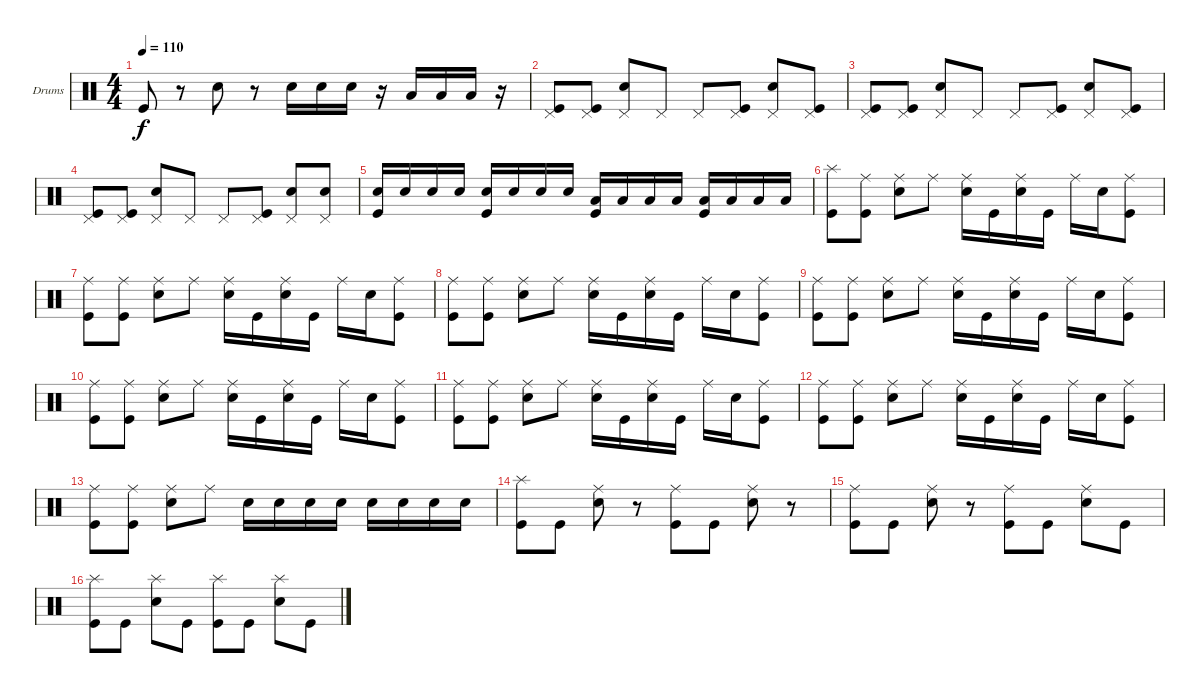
\defaultSystemsLayout 4
\bracketExtendMode groupsimilarinstruments
\firstSystemTrackNameOrientation horizontal
\otherSystemsTrackNameOrientation horizontal
\track ("Drumkit" "Drums") {instrument percussion}
\staff {score}
\articulation defaults
\ts (4 4)
\tempo 110
\clef neutral
\ks c "Kick (hit)".8{dy f}
r.8 "Snare (hit) 2".8 r.8 "Snare (hit) 2".16 "Snare (hit) 2".16 "Snare (hit) 2".16 r.16 "Low Tom (hit)".16 "Low Tom (hit)".16 "Low Tom (hit)".16 r.16 |
("Pedal Hi-Hat (hit)" "Kick (hit)").8 ("Pedal Hi-Hat (hit)" "Kick (hit)").8 ("Pedal Hi-Hat (hit)" "Snare (hit) 2").8 "Pedal Hi-Hat (hit)".8 "Pedal Hi-Hat (hit)".8 ("Pedal Hi-Hat (hit)" "Kick (hit)").8 ("Pedal Hi-Hat (hit)" "Snare (hit) 2").8 ("Pedal Hi-Hat (hit)" "Kick (hit)").8 |
("Pedal Hi-Hat (hit)" "Kick (hit)").8 ("Pedal Hi-Hat (hit)" "Kick (hit)").8 ("Pedal Hi-Hat (hit)" "Snare (hit) 2").8 "Pedal Hi-Hat (hit)".8 "Pedal Hi-Hat (hit)".8 ("Pedal Hi-Hat (hit)" "Kick (hit)").8 ("Pedal Hi-Hat (hit)" "Snare (hit) 2").8 ("Pedal Hi-Hat (hit)" "Kick (hit)").8 |
("Pedal Hi-Hat (hit)" "Kick (hit)").8 ("Pedal Hi-Hat (hit)" "Kick (hit)").8 ("Pedal Hi-Hat (hit)" "Snare (hit) 2").8 "Pedal Hi-Hat (hit)".8 "Pedal Hi-Hat (hit)".8 ("Pedal Hi-Hat (hit)" "Kick (hit)").8 ("Pedal Hi-Hat (hit)" "Snare (hit) 2").8 ("Pedal Hi-Hat (hit)" "Snare (hit) 2").8 |
("Snare (hit) 2" "Kick (hit)").16 "Snare (hit) 2".16 "Snare (hit) 2".16 "Snare (hit) 2".16 ("Snare (hit) 2" "Kick (hit)").16 "Snare (hit) 2".16 "Snare (hit) 2".16 "Snare (hit) 2".16 ("Low Tom (hit)" "Kick (hit)").16 "Low Tom (hit)".16 "Low Tom (hit)".16 "Low Tom (hit)".16 ("Low Tom (hit)" "Kick (hit)").16 "Low Tom (hit)".16 "Low Tom (hit)".16 "Low Tom (hit)".16 |
("Splash (hit)" "Kick (hit)").8 ("Ride (middle)" "Kick (hit)").8 ("Ride (middle)" "Snare (hit) 2").8 "Ride (middle)".8 ("Snare (hit) 2" "Ride (middle)").16 "Kick (hit)".16 ("Snare (hit) 2" "Ride (middle)").16 "Kick (hit)".16 "Ride (middle)".16 "Snare (hit) 2".16 ("Kick (hit)" "Ride (middle)").8 |
("Kick (hit)" "Ride (middle)").8 ("Ride (middle)" "Kick (hit)").8 ("Ride (middle)" "Snare (hit) 2").8 "Ride (middle)".8 ("Snare (hit) 2" "Ride (middle)").16 "Kick (hit)".16 ("Snare (hit) 2" "Ride (middle)").16 "Kick (hit)".16 "Ride (middle)".16 "Snare (hit) 2".16 ("Kick (hit)" "Ride (middle)").8 |
("Kick (hit)" "Ride (middle)").8 ("Ride (middle)" "Kick (hit)").8 ("Ride (middle)" "Snare (hit) 2").8 "Ride (middle)".8 ("Snare (hit) 2" "Ride (middle)").16 "Kick (hit)".16 ("Snare (hit) 2" "Ride (middle)").16 "Kick (hit)".16 "Ride (middle)".16 "Snare (hit) 2".16 ("Kick (hit)" "Ride (middle)").8 |
("Kick (hit)" "Ride (middle)").8 ("Ride (middle)" "Kick (hit)").8 ("Ride (middle)" "Snare (hit) 2").8 "Ride (middle)".8 ("Snare (hit) 2" "Ride (middle)").16 "Kick (hit)".16 ("Snare (hit) 2" "Ride (middle)").16 "Kick (hit)".16 "Ride (middle)".16 "Snare (hit) 2".16 ("Kick (hit)" "Ride (middle)").8 |
("Kick (hit)" "Ride (middle)").8 ("Ride (middle)" "Kick (hit)").8 ("Ride (middle)" "Snare (hit) 2").8 "Ride (middle)".8 ("Snare (hit) 2" "Ride (middle)").16 "Kick (hit)".16 ("Snare (hit) 2" "Ride (middle)").16 "Kick (hit)".16 "Ride (middle)".16 "Snare (hit) 2".16 ("Kick (hit)" "Ride (middle)").8 |
("Kick (hit)" "Ride (middle)").8 ("Ride (middle)" "Kick (hit)").8 ("Ride (middle)" "Snare (hit) 2").8 "Ride (middle)".8 ("Snare (hit) 2" "Ride (middle)").16 "Kick (hit)".16 ("Snare (hit) 2" "Ride (middle)").16 "Kick (hit)".16 "Ride (middle)".16 "Snare (hit) 2".16 ("Kick (hit)" "Ride (middle)").8 |
("Kick (hit)" "Ride (middle)").8 ("Ride (middle)" "Kick (hit)").8 ("Ride (middle)" "Snare (hit) 2").8 "Ride (middle)".8 ("Snare (hit) 2" "Ride (middle)").16 "Kick (hit)".16 ("Snare (hit) 2" "Ride (middle)").16 "Kick (hit)".16 "Ride (middle)".16 "Snare (hit) 2".16 ("Kick (hit)" "Ride (middle)").8 |
("Ride (middle)" "Kick (hit)").8 ("Ride (middle)" "Kick (hit)").8 ("Ride (middle)" "Snare (hit) 2").8 "Ride (middle)".8 "Snare (hit) 2".16 "Snare (hit) 2".16 "Snare (hit) 2".16 "Snare (hit) 2".16 "Snare (hit) 2".16 "Snare (hit) 2".16 "Snare (hit) 2".16 "Snare (hit) 2".16 |
("Kick (hit)" "Splash (hit)").8 "Kick (hit)".8 ("Ride (middle)" "Snare (hit) 2").8 r.8 ("Kick (hit)" "Ride (middle)").8 "Kick (hit)".8 ("Ride (middle)" "Snare (hit) 2").8 r.8 |
("Kick (hit)" "Ride (middle)").8 "Kick (hit)".8 ("Ride (middle)" "Snare (hit) 2").8 r.8 ("Kick (hit)" "Ride (middle)").8 "Kick (hit)".8 ("Ride (middle)" "Snare (hit) 2").8 "Kick (hit)".8 |
("Kick (hit)" "Splash (hit)").8 "Kick (hit)".8 ("Snare (hit) 2" "Splash (hit)").8 "Kick (hit)".8 ("Kick (hit)" "Splash (hit)").8 "Kick (hit)".8 ("Snare (hit) 2" "Splash (hit)").8 "Kick (hit)".8
